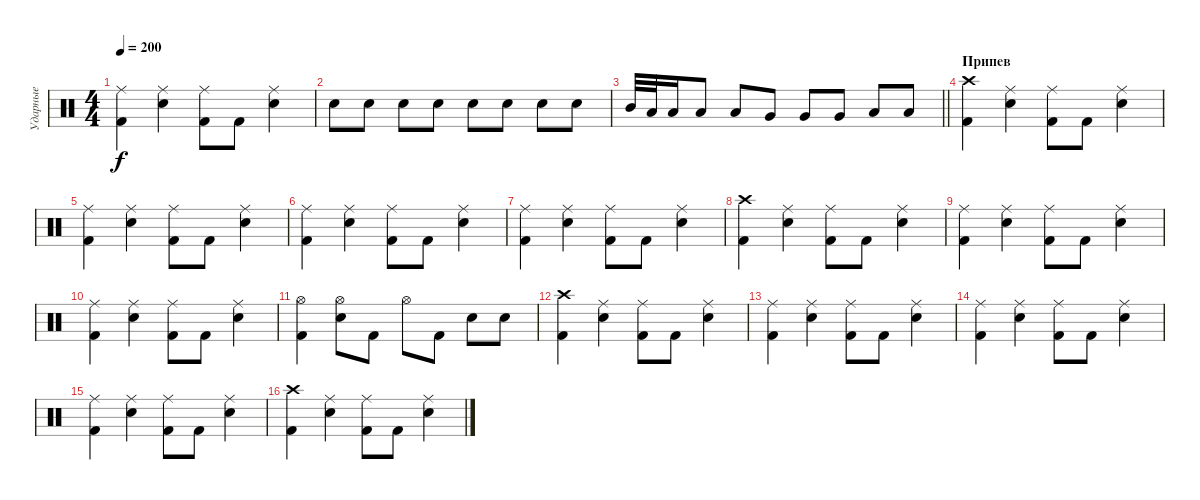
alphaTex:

\track ("Ударные" "Ударные") {instrument percussion}
\staff {score}
\articulation defaults
\ts (4 4)
\tempo 200
\clef neutral
\ks c
("Ride (middle)" "Kick (hit) 2").4{dy f} ("Ride (middle)" "Electric Snare (hit)").4 ("Ride (middle)" "Kick (hit) 2").8 "Kick (hit) 2".8 ("Ride (middle)" "Electric Snare (hit)").4 |
"Electric Snare (hit)".8 "Electric Snare (hit)".8 "Electric Snare (hit)".8 "Electric Snare (hit)".8 "Electric Snare (hit)".8 "Electric Snare (hit)".8 "Electric Snare (hit)".8 "Electric Snare (hit)".8 |
\barLineRight lightlight "Mid Tom (hit)".32 "Low Tom (hit)".32 "Low Tom (hit)".16 "Low Tom (hit)".8 "Low Tom (hit)".8 "Very Low Tom (hit)".8 "Very Low Tom (hit)".8 "Very Low Tom (hit)".8 "Low Floor Tom (hit)".8 "Low Floor Tom (hit)".8
|
\section ("" "Припев")
("Crash high (hit)" "Kick (hit) 2").4 ("Ride (middle)" "Electric Snare (hit)").4 ("Ride (middle)" "Kick (hit) 2").8 "Kick (hit) 2".8 ("Ride (middle)" "Electric Snare (hit)").4 |
("Ride (middle)" "Kick (hit) 2").4 ("Ride (middle)" "Electric Snare (hit)").4 ("Ride (middle)" "Kick (hit) 2").8 "Kick (hit) 2".8 ("Ride (middle)" "Electric Snare (hit)").4 |
("Ride (middle)" "Kick (hit) 2").4 ("Ride (middle)" "Electric Snare (hit)").4 ("Ride (middle)" "Kick (hit) 2").8 "Kick (hit) 2".8 ("Ride (middle)" "Electric Snare (hit)").4 |
("Ride (middle)" "Kick (hit) 2").4 ("Ride (middle)" "Electric Snare (hit)").4 ("Ride (middle)" "Kick (hit) 2").8 "Kick (hit) 2".8 ("Ride (middle)" "Electric Snare (hit)").4 |
("Crash high (hit)" "Kick (hit) 2").4 ("Ride (middle)" "Electric Snare (hit)").4 ("Ride (middle)" "Kick (hit) 2").8 "Kick (hit) 2".8 ("Ride (middle)" "Electric Snare (hit)").4 |
("Ride (middle)" "Kick (hit) 2").4 ("Ride (middle)" "Electric Snare (hit)").4 ("Ride (middle)" "Kick (hit) 2").8 "Kick (hit) 2".8 ("Ride (middle)" "Electric Snare (hit)").4 |
("Ride (middle)" "Kick (hit) 2").4 ("Ride (middle)" "Electric Snare (hit)").4 ("Ride (middle)" "Kick (hit) 2").8 "Kick (hit) 2".8 ("Ride (middle)" "Electric Snare (hit)").4 |
("Hi-Hat (open)" "Kick (hit) 2").4 ("Hi-Hat (open)" "Electric Snare (hit)").8 "Kick (hit) 2".8 "Hi-Hat (open)".8 "Kick (hit) 2".8 "Electric Snare (hit)".8 "Electric Snare (hit)".8 |
("Crash high (hit)" "Kick (hit) 2").4 ("Ride (middle)" "Electric Snare (hit)").4 ("Ride (middle)" "Kick (hit) 2").8 "Kick (hit) 2".8 ("Ride (middle)" "Electric Snare (hit)").4 |
("Ride (middle)" "Kick (hit) 2").4 ("Ride (middle)" "Electric Snare (hit)").4 ("Ride (middle)" "Kick (hit) 2").8 "Kick (hit) 2".8 ("Ride (middle)" "Electric Snare (hit)").4 |
("Ride (middle)" "Kick (hit) 2").4 ("Ride (middle)" "Electric Snare (hit)").4 ("Ride (middle)" "Kick (hit) 2").8 "Kick (hit) 2".8 ("Ride (middle)" "Electric Snare (hit)").4 |
("Ride (middle)" "Kick (hit) 2").4 ("Ride (middle)" "Electric Snare (hit)").4 ("Ride (middle)" "Kick (hit) 2").8 "Kick (hit) 2".8 ("Ride (middle)" "Electric Snare (hit)").4 |
("Crash high (hit)" "Kick (hit) 2").4 ("Ride (middle)" "Electric Snare (hit)").4 ("Ride (middle)" "Kick (hit) 2").8 "Kick (hit) 2".8 ("Ride (middle)" "Electric Snare (hit)").4
